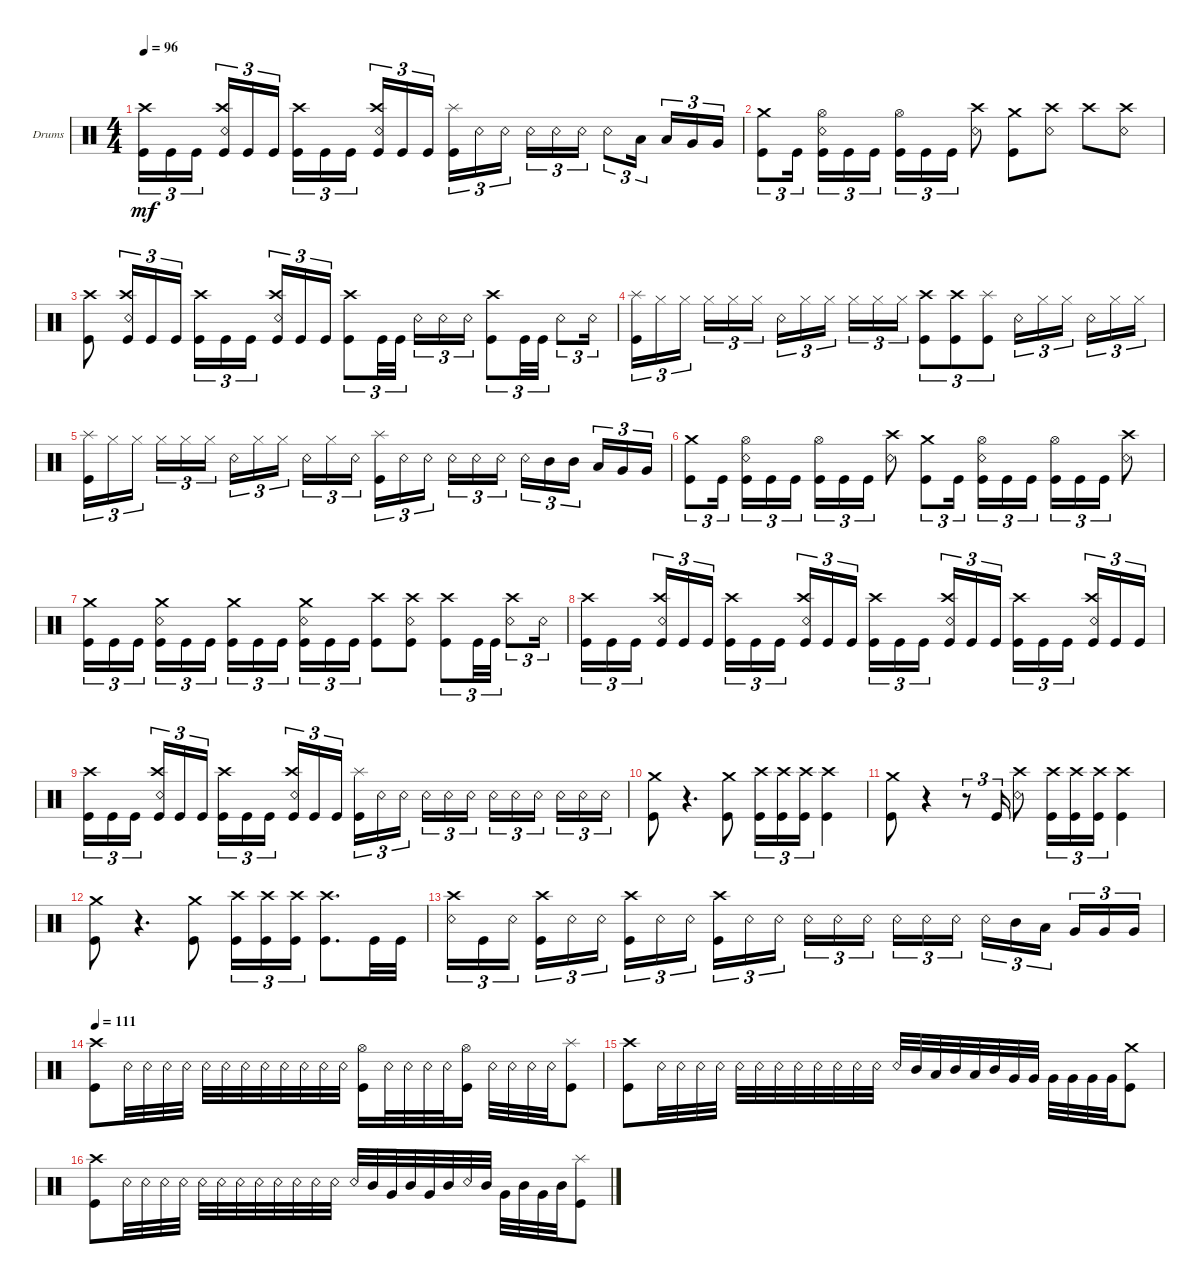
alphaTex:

\defaultSystemsLayout 4
\bracketExtendMode groupsimilarinstruments
\firstSystemTrackNameOrientation horizontal
\otherSystemsTrackNameOrientation horizontal
\track ("Drums" "Drums") {instrument percussion}
\staff {score}
\articulation defaults
\ts (4 4)
\tempo 96
\clef neutral
\ks c
("Kick (hit)" "Crash high (hit)").16{tu (3 2) dy mf} "Kick (hit)".16{tu (3 2)} "Kick (hit)".16{tu (3 2)} ("Kick (hit)" "Crash high (hit)" "Snare (rim shot)").16{tu (3 2)} "Kick (hit)".16{tu (3 2)} "Kick (hit)".16{tu (3 2)} ("Kick (hit)" "Crash high (hit)").16{tu (3 2)} "Kick (hit)".16{tu (3 2)} "Kick (hit)".16{tu (3 2)} ("Kick (hit)" "Crash high (hit)" "Snare (rim shot)").16{tu (3 2)} "Kick (hit)".16{tu (3 2)} "Kick (hit)".16{tu (3 2)} ("Splash (hit)" "Kick (hit)").16{tu (3 2)} "Snare (rim shot)".16{tu (3 2)} "Snare (rim shot)".16{tu (3 2)} "Snare (rim shot)".16{tu (3 2)} "Snare (rim shot)".16{tu (3 2)} "Snare (rim shot)".16{tu (3 2)} "Snare (rim shot)".8{tu (3 2)} "Low Tom (hit)".16{tu (3 2)} "Low Tom (hit)".16{tu (3 2)} "Very Low Tom (hit)".16{tu (3 2)} "Very Low Tom (hit)".16{tu (3 2)} |
("Kick (hit)" "Crash medium (hit)").8{tu (3 2)} "Kick (hit)".16{tu (3 2)} ("Kick (hit)" "Snare (rim shot)" "Hi-Hat (open)").16{tu (3 2)} "Kick (hit)".16{tu (3 2)} "Kick (hit)".16{tu (3 2)} ("Kick (hit)" "Hi-Hat (open)").16{tu (3 2)} "Kick (hit)".16{tu (3 2)} "Kick (hit)".16{tu (3 2)} ("Snare (rim shot)" "Crash high (hit)").8 ("Kick (hit)" "Crash medium (hit)").8 ("Snare (rim shot)" "Crash high (hit)").8 "Crash high (hit)".8 ("Snare (rim shot)" "Crash high (hit)").8 |
("Crash high (hit)" "Kick (hit)").8 ("Kick (hit)" "Snare (rim shot)" "Crash high (hit)").16{tu (3 2)} "Kick (hit)".16{tu (3 2)} "Kick (hit)".16{tu (3 2)} ("Kick (hit)" "Crash high (hit)").16{tu (3 2)} "Kick (hit)".16{tu (3 2)} "Kick (hit)".16{tu (3 2)} ("Kick (hit)" "Snare (rim shot)" "Crash high (hit)").16{tu (3 2)} "Kick (hit)".16{tu (3 2)} "Kick (hit)".16{tu (3 2)} ("Kick (hit)" "Crash high (hit)").8{tu (3 2)} "Kick (hit)".32{tu (3 2)} "Kick (hit)".32{tu (3 2)} "Snare (rim shot)".16{tu (3 2)} "Snare (rim shot)".16{tu (3 2)} "Snare (rim shot)".16{tu (3 2)} ("Kick (hit)" "Crash high (hit)").8{tu (3 2)} "Kick (hit)".32{tu (3 2)} "Kick (hit)".32{tu (3 2)} "Snare (rim shot)".8{tu (3 2)} "Snare (rim shot)".16{tu (3 2)} |
("Kick (hit)" "Splash (hit)").16{tu (3 2)} "Hi-Hat (closed)".16{tu (3 2)} "Hi-Hat (closed)".16{tu (3 2)} "Hi-Hat (closed)".16{tu (3 2)} "Hi-Hat (closed)".16{tu (3 2)} "Hi-Hat (closed)".16{tu (3 2)} "Snare (rim shot)".16{tu (3 2)} "Hi-Hat (closed)".16{tu (3 2)} "Hi-Hat (closed)".16{tu (3 2)} "Hi-Hat (closed)".16{tu (3 2)} "Hi-Hat (closed)".16{tu (3 2)} "Hi-Hat (closed)".16{tu (3 2)} ("Crash high (hit)" "Kick (hit)").8{tu (3 2)} ("Crash high (hit)" "Kick (hit)").8{tu (3 2)} ("Splash (hit)" "Kick (hit)").8{tu (3 2)} "Snare (rim shot)".16{tu (3 2)} "Hi-Hat (closed)".16{tu (3 2)} "Hi-Hat (closed)".16{tu (3 2)} "Snare (rim shot)".16{tu (3 2)} "Hi-Hat (closed)".16{tu (3 2)} "Hi-Hat (closed)".16{tu (3 2)} |
("Kick (hit)" "Splash (hit)").16{tu (3 2)} "Hi-Hat (closed)".16{tu (3 2)} "Hi-Hat (closed)".16{tu (3 2)} "Hi-Hat (closed)".16{tu (3 2)} "Hi-Hat (closed)".16{tu (3 2)} "Hi-Hat (closed)".16{tu (3 2)} "Snare (rim shot)".16{tu (3 2)} "Hi-Hat (closed)".16{tu (3 2)} "Hi-Hat (closed)".16{tu (3 2)} "Snare (rim shot)".16{tu (3 2)} "Hi-Hat (closed)".16{tu (3 2)} "Snare (rim shot)".16{tu (3 2)} ("Splash (hit)" "Kick (hit)").16{tu (3 2)} "Snare (rim shot)".16{tu (3 2)} "Snare (rim shot)".16{tu (3 2)} "Snare (rim shot)".16{tu (3 2)} "Snare (rim shot)".16{tu (3 2)} "Snare (rim shot)".16{tu (3 2)} "Snare (rim shot)".16{tu (3 2)} "Mid Tom (hit)".16{tu (3 2)} "Mid Tom (hit)".16{tu (3 2)} "Low Tom (hit)".16{tu (3 2)} "Very Low Tom (hit)".16{tu (3 2)} "Very Low Tom (hit)".16{tu (3 2)} |
("Kick (hit)" "Crash medium (hit)").8{tu (3 2)} "Kick (hit)".16{tu (3 2)} ("Kick (hit)" "Snare (rim shot)" "Hi-Hat (open)").16{tu (3 2)} "Kick (hit)".16{tu (3 2)} "Kick (hit)".16{tu (3 2)} ("Kick (hit)" "Hi-Hat (open)").16{tu (3 2)} "Kick (hit)".16{tu (3 2)} "Kick (hit)".16{tu (3 2)} ("Snare (rim shot)" "Crash high (hit)").8 ("Kick (hit)" "Crash medium (hit)").8{tu (3 2)} "Kick (hit)".16{tu (3 2)} ("Kick (hit)" "Snare (rim shot)" "Hi-Hat (open)").16{tu (3 2)} "Kick (hit)".16{tu (3 2)} "Kick (hit)".16{tu (3 2)} ("Kick (hit)" "Hi-Hat (open)").16{tu (3 2)} "Kick (hit)".16{tu (3 2)} "Kick (hit)".16{tu (3 2)} ("Snare (rim shot)" "Crash high (hit)").8 |
("Kick (hit)" "Crash medium (hit)").16{tu (3 2)} "Kick (hit)".16{tu (3 2)} "Kick (hit)".16{tu (3 2)} ("Kick (hit)" "Crash medium (hit)" "Snare (rim shot)").16{tu (3 2)} "Kick (hit)".16{tu (3 2)} "Kick (hit)".16{tu (3 2)} ("Kick (hit)" "Crash medium (hit)").16{tu (3 2)} "Kick (hit)".16{tu (3 2)} "Kick (hit)".16{tu (3 2)} ("Kick (hit)" "Crash medium (hit)" "Snare (rim shot)").16{tu (3 2)} "Kick (hit)".16{tu (3 2)} "Kick (hit)".16{tu (3 2)} ("Kick (hit)" "Crash high (hit)").8 ("Kick (hit)" "Crash high (hit)" "Snare (rim shot)").8 ("Kick (hit)" "Crash high (hit)").8{tu (3 2)} "Kick (hit)".32{tu (3 2)} "Kick (hit)".32{tu (3 2)} ("Snare (rim shot)" "Crash high (hit)").8{tu (3 2)} "Snare (rim shot)".16{tu (3 2)} |
("Kick (hit)" "Crash high (hit)").16{tu (3 2)} "Kick (hit)".16{tu (3 2)} "Kick (hit)".16{tu (3 2)} ("Kick (hit)" "Crash high (hit)" "Snare (rim shot)").16{tu (3 2)} "Kick (hit)".16{tu (3 2)} "Kick (hit)".16{tu (3 2)} ("Kick (hit)" "Crash high (hit)").16{tu (3 2)} "Kick (hit)".16{tu (3 2)} "Kick (hit)".16{tu (3 2)} ("Kick (hit)" "Crash high (hit)" "Snare (rim shot)").16{tu (3 2)} "Kick (hit)".16{tu (3 2)} "Kick (hit)".16{tu (3 2)} ("Kick (hit)" "Crash high (hit)").16{tu (3 2)} "Kick (hit)".16{tu (3 2)} "Kick (hit)".16{tu (3 2)} ("Kick (hit)" "Crash high (hit)" "Snare (rim shot)").16{tu (3 2)} "Kick (hit)".16{tu (3 2)} "Kick (hit)".16{tu (3 2)} ("Kick (hit)" "Crash high (hit)").16{tu (3 2)} "Kick (hit)".16{tu (3 2)} "Kick (hit)".16{tu (3 2)} ("Kick (hit)" "Crash high (hit)" "Snare (rim shot)").16{tu (3 2)} "Kick (hit)".16{tu (3 2)} "Kick (hit)".16{tu (3 2)} |
("Kick (hit)" "Crash high (hit)").16{tu (3 2)} "Kick (hit)".16{tu (3 2)} "Kick (hit)".16{tu (3 2)} ("Kick (hit)" "Crash high (hit)" "Snare (rim shot)").16{tu (3 2)} "Kick (hit)".16{tu (3 2)} "Kick (hit)".16{tu (3 2)} ("Kick (hit)" "Crash high (hit)").16{tu (3 2)} "Kick (hit)".16{tu (3 2)} "Kick (hit)".16{tu (3 2)} ("Kick (hit)" "Crash high (hit)" "Snare (rim shot)").16{tu (3 2)} "Kick (hit)".16{tu (3 2)} "Kick (hit)".16{tu (3 2)} ("Splash (hit)" "Kick (hit)").16{tu (3 2)} "Snare (rim shot)".16{tu (3 2)} "Snare (rim shot)".16{tu (3 2)} "Snare (rim shot)".16{tu (3 2)} "Snare (rim shot)".16{tu (3 2)} "Snare (rim shot)".16{tu (3 2)} "Snare (rim shot)".16{tu (3 2)} "Snare (rim shot)".16{tu (3 2)} "Snare (rim shot)".16{tu (3 2)} "Snare (rim shot)".16{tu (3 2)} "Snare (rim shot)".16{tu (3 2)} "Snare (rim shot)".16{tu (3 2)} |
("Kick (hit)" "Crash medium (hit)").8 r.4{d} ("Kick (hit)" "Crash medium (hit)").8 ("Kick (hit)" "Crash high (hit)").16{tu (3 2)} ("Kick (hit)" "Crash high (hit)").16{tu (3 2)} ("Kick (hit)" "Crash high (hit)").16{tu (3 2)} ("Kick (hit)" "Crash high (hit)").4 |
("Kick (hit)" "Crash medium (hit)").8 r.4 r.8{tu (3 2)} "Kick (hit)".16{tu (3 2)} ("Snare (rim shot)" "Crash high (hit)").8 ("Kick (hit)" "Crash high (hit)").16{tu (3 2)} ("Kick (hit)" "Crash high (hit)").16{tu (3 2)} ("Kick (hit)" "Crash high (hit)").16{tu (3 2)} ("Kick (hit)" "Crash high (hit)").4 |
("Kick (hit)" "Crash medium (hit)").8 r.4{d} ("Kick (hit)" "Crash medium (hit)").8 ("Kick (hit)" "Crash high (hit)").16{tu (3 2)} ("Kick (hit)" "Crash high (hit)").16{tu (3 2)} ("Kick (hit)" "Crash high (hit)").16{tu (3 2)} ("Kick (hit)" "Crash high (hit)").8{d} "Kick (hit)".32 "Kick (hit)".32 |
("Snare (rim shot)" "Crash high (hit)").16{tu (3 2)} "Kick (hit)".16{tu (3 2)} "Snare (rim shot)".16{tu (3 2)} ("Kick (hit)" "Crash high (hit)").16{tu (3 2)} "Snare (rim shot)".16{tu (3 2)} "Snare (rim shot)".16{tu (3 2)} ("Kick (hit)" "Crash high (hit)").16{tu (3 2)} "Snare (rim shot)".16{tu (3 2)} "Snare (rim shot)".16{tu (3 2)} ("Kick (hit)" "Crash high (hit)").16{tu (3 2)} "Snare (rim shot)".16{tu (3 2)} "Snare (rim shot)".16{tu (3 2)} "Snare (rim shot)".16{tu (3 2)} "Snare (rim shot)".16{tu (3 2)} "Snare (rim shot)".16{tu (3 2)} "Snare (rim shot)".16{tu (3 2)} "Snare (rim shot)".16{tu (3 2)} "Snare (rim shot)".16{tu (3 2)} "Snare (rim shot)".16{tu (3 2)} "Mid Tom (hit)".16{tu (3 2)} "Low Tom (hit)".16{tu (3 2)} "Very Low Tom (hit)".16{tu (3 2)} "Very Low Tom (hit)".16{tu (3 2)} "Very Low Tom (hit)".16{tu (3 2)} |
\tempo 111
("Kick (hit)" "Crash high (hit)").8 "Snare (rim shot)".32 "Snare (rim shot)".32 "Snare (rim shot)".32 "Snare (rim shot)".32 "Snare (rim shot)".32 "Snare (rim shot)".32 "Snare (rim shot)".32 "Snare (rim shot)".32 "Snare (rim shot)".32 "Snare (rim shot)".32 "Snare (rim shot)".32 "Snare (rim shot)".32 ("Kick (hit)" "Hi-Hat (open)").16 "Snare (rim shot)".32 "Snare (rim shot)".32 "Snare (rim shot)".32 "Snare (rim shot)".32 ("Kick (hit)" "Hi-Hat (open)").16 "Snare (rim shot)".32 "Snare (rim shot)".32 "Snare (rim shot)".32 "Snare (rim shot)".32 ("Kick (hit)" "Splash (hit)").8 |
("Kick (hit)" "Crash high (hit)").8 "Snare (rim shot)".32 "Snare (rim shot)".32 "Snare (rim shot)".32 "Snare (rim shot)".32 "Snare (rim shot)".32 "Snare (rim shot)".32 "Snare (rim shot)".32 "Snare (rim shot)".32 "Snare (rim shot)".32 "Snare (rim shot)".32 "Snare (rim shot)".32 "Snare (rim shot)".32 "Snare (rim shot)".32 "Mid Tom (hit)".32 "Low Tom (hit)".32 "Mid Tom (hit)".32 "Low Tom (hit)".32 "Mid Tom (hit)".32 "Very Low Tom (hit)".32 "Very Low Tom (hit)".32 "Very Low Tom (hit)".32 "Very Low Tom (hit)".32 "Very Low Tom (hit)".32 "Very Low Tom (hit)".32 ("Kick (hit)" "Crash medium (hit)").8 |
("Crash high (hit)" "Kick (hit)").8 "Snare (rim shot)".32 "Snare (rim shot)".32 "Snare (rim shot)".32 "Snare (rim shot)".32 "Snare (rim shot)".32 "Snare (rim shot)".32 "Snare (rim shot)".32 "Snare (rim shot)".32 "Snare (rim shot)".32 "Snare (rim shot)".32 "Snare (rim shot)".32 "Snare (rim shot)".32 "Snare (rim shot)".32 "Mid Tom (hit)".32 "Very Low Tom (hit)".32 "Mid Tom (hit)".32 "Very Low Tom (hit)".32 "Mid Tom (hit)".32 "Snare (rim shot)".32 "Mid Tom (hit)".32 "Very Low Tom (hit)".32 "Mid Tom (hit)".32 "Very Low Tom (hit)".32 "Mid Tom (hit)".32 ("Kick (hit)" "Splash (hit)").8
